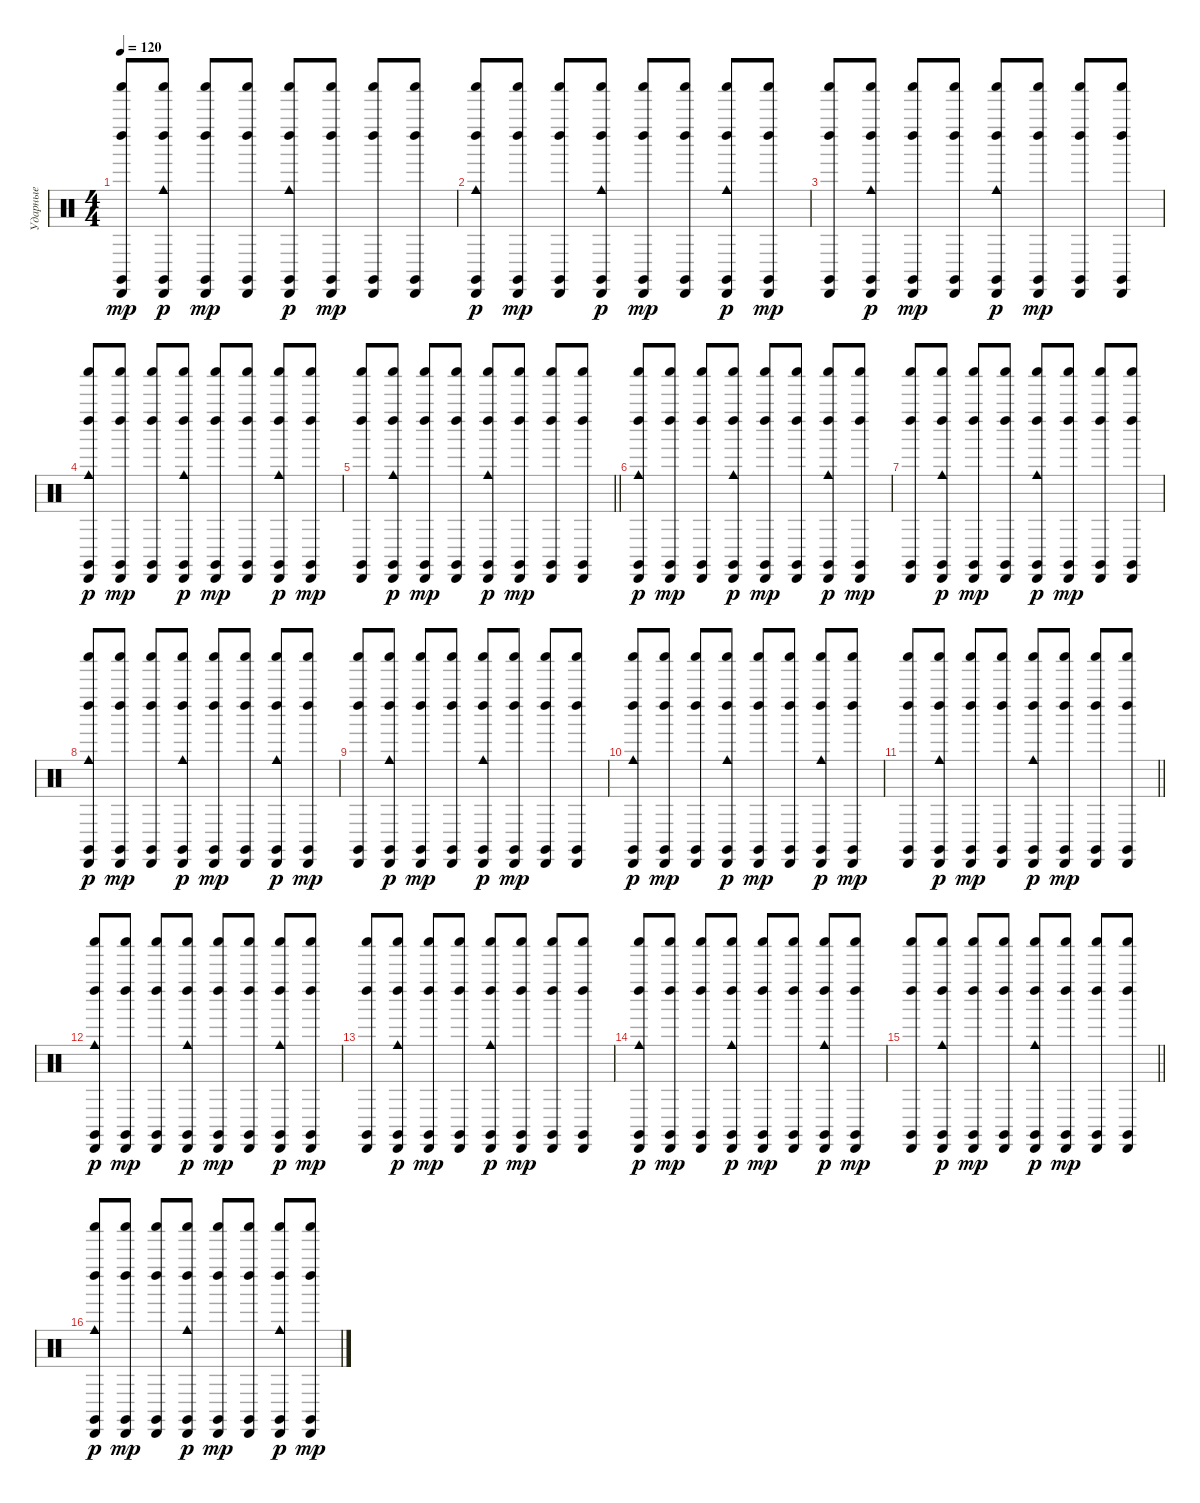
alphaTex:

\track ("Ударные" "Ударные") {instrument percussion}
\staff {score}
\articulation defaults
\ts (4 4)
\tempo 120
\clef neutral
\ks c
("Claves (hit)" "Shaker (hit)" "Cabasa (hit)" "Left Maraca (hit)").8{dy mp} ("Claves (hit)" "Shaker (hit)" "Cabasa (hit)" "Left Maraca (hit)" "Cowbell medium (hit)").8{dy p} ("Claves (hit)" "Shaker (hit)" "Cabasa (hit)" "Left Maraca (hit)").8{dy mp} ("Claves (hit)" "Shaker (hit)" "Cabasa (hit)" "Left Maraca (hit)").8 ("Claves (hit)" "Shaker (hit)" "Cabasa (hit)" "Left Maraca (hit)" "Cowbell medium (hit)").8{dy p} ("Claves (hit)" "Shaker (hit)" "Cabasa (hit)" "Left Maraca (hit)").8{dy mp} ("Claves (hit)" "Shaker (hit)" "Cabasa (hit)" "Left Maraca (hit)").8 ("Claves (hit)" "Shaker (hit)" "Cabasa (hit)" "Left Maraca (hit)").8 |
("Claves (hit)" "Shaker (hit)" "Cabasa (hit)" "Left Maraca (hit)" "Cowbell medium (hit)").8{dy p} ("Claves (hit)" "Shaker (hit)" "Cabasa (hit)" "Left Maraca (hit)").8{dy mp} ("Claves (hit)" "Shaker (hit)" "Cabasa (hit)" "Left Maraca (hit)").8 ("Claves (hit)" "Shaker (hit)" "Cabasa (hit)" "Left Maraca (hit)" "Cowbell medium (hit)").8{dy p} ("Claves (hit)" "Shaker (hit)" "Cabasa (hit)" "Left Maraca (hit)").8{dy mp} ("Claves (hit)" "Shaker (hit)" "Cabasa (hit)" "Left Maraca (hit)").8 ("Claves (hit)" "Shaker (hit)" "Cabasa (hit)" "Left Maraca (hit)" "Cowbell medium (hit)").8{dy p} ("Claves (hit)" "Shaker (hit)" "Cabasa (hit)" "Left Maraca (hit)").8{dy mp} |
("Claves (hit)" "Shaker (hit)" "Cabasa (hit)" "Left Maraca (hit)").8 ("Claves (hit)" "Shaker (hit)" "Cabasa (hit)" "Left Maraca (hit)" "Cowbell medium (hit)").8{dy p} ("Claves (hit)" "Shaker (hit)" "Cabasa (hit)" "Left Maraca (hit)").8{dy mp} ("Claves (hit)" "Shaker (hit)" "Cabasa (hit)" "Left Maraca (hit)").8 ("Claves (hit)" "Shaker (hit)" "Cabasa (hit)" "Left Maraca (hit)" "Cowbell medium (hit)").8{dy p} ("Claves (hit)" "Shaker (hit)" "Cabasa (hit)" "Left Maraca (hit)").8{dy mp} ("Claves (hit)" "Shaker (hit)" "Cabasa (hit)" "Left Maraca (hit)").8 ("Claves (hit)" "Shaker (hit)" "Cabasa (hit)" "Left Maraca (hit)").8 |
("Claves (hit)" "Shaker (hit)" "Cabasa (hit)" "Left Maraca (hit)" "Cowbell medium (hit)").8{dy p} ("Claves (hit)" "Shaker (hit)" "Cabasa (hit)" "Left Maraca (hit)").8{dy mp} ("Claves (hit)" "Shaker (hit)" "Cabasa (hit)" "Left Maraca (hit)").8 ("Claves (hit)" "Shaker (hit)" "Cabasa (hit)" "Left Maraca (hit)" "Cowbell medium (hit)").8{dy p} ("Claves (hit)" "Shaker (hit)" "Cabasa (hit)" "Left Maraca (hit)").8{dy mp} ("Claves (hit)" "Shaker (hit)" "Cabasa (hit)" "Left Maraca (hit)").8 ("Claves (hit)" "Shaker (hit)" "Cabasa (hit)" "Left Maraca (hit)" "Cowbell medium (hit)").8{dy p} ("Claves (hit)" "Shaker (hit)" "Cabasa (hit)" "Left Maraca (hit)").8{dy mp} |
\barLineRight lightlight
("Claves (hit)" "Shaker (hit)" "Cabasa (hit)" "Left Maraca (hit)").8 ("Claves (hit)" "Shaker (hit)" "Cabasa (hit)" "Left Maraca (hit)" "Cowbell medium (hit)").8{dy p} ("Claves (hit)" "Shaker (hit)" "Cabasa (hit)" "Left Maraca (hit)").8{dy mp} ("Claves (hit)" "Shaker (hit)" "Cabasa (hit)" "Left Maraca (hit)").8 ("Claves (hit)" "Shaker (hit)" "Cabasa (hit)" "Left Maraca (hit)" "Cowbell medium (hit)").8{dy p} ("Claves (hit)" "Shaker (hit)" "Cabasa (hit)" "Left Maraca (hit)").8{dy mp} ("Claves (hit)" "Shaker (hit)" "Cabasa (hit)" "Left Maraca (hit)").8 ("Claves (hit)" "Shaker (hit)" "Cabasa (hit)" "Left Maraca (hit)").8 |
("Claves (hit)" "Shaker (hit)" "Cabasa (hit)" "Left Maraca (hit)" "Cowbell medium (hit)").8{dy p} ("Claves (hit)" "Shaker (hit)" "Cabasa (hit)" "Left Maraca (hit)").8{dy mp} ("Claves (hit)" "Shaker (hit)" "Cabasa (hit)" "Left Maraca (hit)").8 ("Claves (hit)" "Shaker (hit)" "Cabasa (hit)" "Left Maraca (hit)" "Cowbell medium (hit)").8{dy p} ("Claves (hit)" "Shaker (hit)" "Cabasa (hit)" "Left Maraca (hit)").8{dy mp} ("Claves (hit)" "Shaker (hit)" "Cabasa (hit)" "Left Maraca (hit)").8 ("Claves (hit)" "Shaker (hit)" "Cabasa (hit)" "Left Maraca (hit)" "Cowbell medium (hit)").8{dy p} ("Claves (hit)" "Shaker (hit)" "Cabasa (hit)" "Left Maraca (hit)").8{dy mp} |
("Claves (hit)" "Shaker (hit)" "Cabasa (hit)" "Left Maraca (hit)").8 ("Claves (hit)" "Shaker (hit)" "Cabasa (hit)" "Left Maraca (hit)" "Cowbell medium (hit)").8{dy p} ("Claves (hit)" "Shaker (hit)" "Cabasa (hit)" "Left Maraca (hit)").8{dy mp} ("Claves (hit)" "Shaker (hit)" "Cabasa (hit)" "Left Maraca (hit)").8 ("Claves (hit)" "Shaker (hit)" "Cabasa (hit)" "Left Maraca (hit)" "Cowbell medium (hit)").8{dy p} ("Claves (hit)" "Shaker (hit)" "Cabasa (hit)" "Left Maraca (hit)").8{dy mp} ("Claves (hit)" "Shaker (hit)" "Cabasa (hit)" "Left Maraca (hit)").8 ("Claves (hit)" "Shaker (hit)" "Cabasa (hit)" "Left Maraca (hit)").8 |
("Claves (hit)" "Shaker (hit)" "Cabasa (hit)" "Left Maraca (hit)" "Cowbell medium (hit)").8{dy p} ("Claves (hit)" "Shaker (hit)" "Cabasa (hit)" "Left Maraca (hit)").8{dy mp} ("Claves (hit)" "Shaker (hit)" "Cabasa (hit)" "Left Maraca (hit)").8 ("Claves (hit)" "Shaker (hit)" "Cabasa (hit)" "Left Maraca (hit)" "Cowbell medium (hit)").8{dy p} ("Claves (hit)" "Shaker (hit)" "Cabasa (hit)" "Left Maraca (hit)").8{dy mp} ("Claves (hit)" "Shaker (hit)" "Cabasa (hit)" "Left Maraca (hit)").8 ("Claves (hit)" "Shaker (hit)" "Cabasa (hit)" "Left Maraca (hit)" "Cowbell medium (hit)").8{dy p} ("Claves (hit)" "Shaker (hit)" "Cabasa (hit)" "Left Maraca (hit)").8{dy mp} |
("Claves (hit)" "Shaker (hit)" "Cabasa (hit)" "Left Maraca (hit)").8 ("Claves (hit)" "Shaker (hit)" "Cabasa (hit)" "Left Maraca (hit)" "Cowbell medium (hit)").8{dy p} ("Claves (hit)" "Shaker (hit)" "Cabasa (hit)" "Left Maraca (hit)").8{dy mp} ("Claves (hit)" "Shaker (hit)" "Cabasa (hit)" "Left Maraca (hit)").8 ("Claves (hit)" "Shaker (hit)" "Cabasa (hit)" "Left Maraca (hit)" "Cowbell medium (hit)").8{dy p} ("Claves (hit)" "Shaker (hit)" "Cabasa (hit)" "Left Maraca (hit)").8{dy mp} ("Claves (hit)" "Shaker (hit)" "Cabasa (hit)" "Left Maraca (hit)").8 ("Claves (hit)" "Shaker (hit)" "Cabasa (hit)" "Left Maraca (hit)").8 |
("Claves (hit)" "Shaker (hit)" "Cabasa (hit)" "Left Maraca (hit)" "Cowbell medium (hit)").8{dy p} ("Claves (hit)" "Shaker (hit)" "Cabasa (hit)" "Left Maraca (hit)").8{dy mp} ("Claves (hit)" "Shaker (hit)" "Cabasa (hit)" "Left Maraca (hit)").8 ("Claves (hit)" "Shaker (hit)" "Cabasa (hit)" "Left Maraca (hit)" "Cowbell medium (hit)").8{dy p} ("Claves (hit)" "Shaker (hit)" "Cabasa (hit)" "Left Maraca (hit)").8{dy mp} ("Claves (hit)" "Shaker (hit)" "Cabasa (hit)" "Left Maraca (hit)").8 ("Claves (hit)" "Shaker (hit)" "Cabasa (hit)" "Left Maraca (hit)" "Cowbell medium (hit)").8{dy p} ("Claves (hit)" "Shaker (hit)" "Cabasa (hit)" "Left Maraca (hit)").8{dy mp} |
\barLineRight lightlight
("Claves (hit)" "Shaker (hit)" "Cabasa (hit)" "Left Maraca (hit)").8 ("Claves (hit)" "Shaker (hit)" "Cabasa (hit)" "Left Maraca (hit)" "Cowbell medium (hit)").8{dy p} ("Claves (hit)" "Shaker (hit)" "Cabasa (hit)" "Left Maraca (hit)").8{dy mp} ("Claves (hit)" "Shaker (hit)" "Cabasa (hit)" "Left Maraca (hit)").8 ("Claves (hit)" "Shaker (hit)" "Cabasa (hit)" "Left Maraca (hit)" "Cowbell medium (hit)").8{dy p} ("Claves (hit)" "Shaker (hit)" "Cabasa (hit)" "Left Maraca (hit)").8{dy mp} ("Claves (hit)" "Shaker (hit)" "Cabasa (hit)" "Left Maraca (hit)").8 ("Claves (hit)" "Shaker (hit)" "Cabasa (hit)" "Left Maraca (hit)").8 |
("Claves (hit)" "Shaker (hit)" "Cabasa (hit)" "Left Maraca (hit)" "Cowbell medium (hit)").8{dy p} ("Claves (hit)" "Shaker (hit)" "Cabasa (hit)" "Left Maraca (hit)").8{dy mp} ("Claves (hit)" "Shaker (hit)" "Cabasa (hit)" "Left Maraca (hit)").8 ("Claves (hit)" "Shaker (hit)" "Cabasa (hit)" "Left Maraca (hit)" "Cowbell medium (hit)").8{dy p} ("Claves (hit)" "Shaker (hit)" "Cabasa (hit)" "Left Maraca (hit)").8{dy mp} ("Claves (hit)" "Shaker (hit)" "Cabasa (hit)" "Left Maraca (hit)").8 ("Claves (hit)" "Shaker (hit)" "Cabasa (hit)" "Left Maraca (hit)" "Cowbell medium (hit)").8{dy p} ("Claves (hit)" "Shaker (hit)" "Cabasa (hit)" "Left Maraca (hit)").8{dy mp} |
("Claves (hit)" "Shaker (hit)" "Cabasa (hit)" "Left Maraca (hit)").8 ("Claves (hit)" "Shaker (hit)" "Cabasa (hit)" "Left Maraca (hit)" "Cowbell medium (hit)").8{dy p} ("Claves (hit)" "Shaker (hit)" "Cabasa (hit)" "Left Maraca (hit)").8{dy mp} ("Claves (hit)" "Shaker (hit)" "Cabasa (hit)" "Left Maraca (hit)").8 ("Claves (hit)" "Shaker (hit)" "Cabasa (hit)" "Left Maraca (hit)" "Cowbell medium (hit)").8{dy p} ("Claves (hit)" "Shaker (hit)" "Cabasa (hit)" "Left Maraca (hit)").8{dy mp} ("Claves (hit)" "Shaker (hit)" "Cabasa (hit)" "Left Maraca (hit)").8 ("Claves (hit)" "Shaker (hit)" "Cabasa (hit)" "Left Maraca (hit)").8 |
("Claves (hit)" "Shaker (hit)" "Cabasa (hit)" "Left Maraca (hit)" "Cowbell medium (hit)").8{dy p} ("Claves (hit)" "Shaker (hit)" "Cabasa (hit)" "Left Maraca (hit)").8{dy mp} ("Claves (hit)" "Shaker (hit)" "Cabasa (hit)" "Left Maraca (hit)").8 ("Claves (hit)" "Shaker (hit)" "Cabasa (hit)" "Left Maraca (hit)" "Cowbell medium (hit)").8{dy p} ("Claves (hit)" "Shaker (hit)" "Cabasa (hit)" "Left Maraca (hit)").8{dy mp} ("Claves (hit)" "Shaker (hit)" "Cabasa (hit)" "Left Maraca (hit)").8 ("Claves (hit)" "Shaker (hit)" "Cabasa (hit)" "Left Maraca (hit)" "Cowbell medium (hit)").8{dy p} ("Claves (hit)" "Shaker (hit)" "Cabasa (hit)" "Left Maraca (hit)").8{dy mp} |
\barLineRight lightlight
("Claves (hit)" "Shaker (hit)" "Cabasa (hit)" "Left Maraca (hit)").8 ("Claves (hit)" "Shaker (hit)" "Cabasa (hit)" "Left Maraca (hit)" "Cowbell medium (hit)").8{dy p} ("Claves (hit)" "Shaker (hit)" "Cabasa (hit)" "Left Maraca (hit)").8{dy mp} ("Claves (hit)" "Shaker (hit)" "Cabasa (hit)" "Left Maraca (hit)").8 ("Claves (hit)" "Shaker (hit)" "Cabasa (hit)" "Left Maraca (hit)" "Cowbell medium (hit)").8{dy p} ("Claves (hit)" "Shaker (hit)" "Cabasa (hit)" "Left Maraca (hit)").8{dy mp} ("Claves (hit)" "Shaker (hit)" "Cabasa (hit)" "Left Maraca (hit)").8 ("Claves (hit)" "Shaker (hit)" "Cabasa (hit)" "Left Maraca (hit)").8 |
("Claves (hit)" "Shaker (hit)" "Cabasa (hit)" "Left Maraca (hit)" "Cowbell medium (hit)").8{dy p} ("Claves (hit)" "Shaker (hit)" "Cabasa (hit)" "Left Maraca (hit)").8{dy mp} ("Claves (hit)" "Shaker (hit)" "Cabasa (hit)" "Left Maraca (hit)").8 ("Claves (hit)" "Shaker (hit)" "Cabasa (hit)" "Left Maraca (hit)" "Cowbell medium (hit)").8{dy p} ("Claves (hit)" "Shaker (hit)" "Cabasa (hit)" "Left Maraca (hit)").8{dy mp} ("Claves (hit)" "Shaker (hit)" "Cabasa (hit)" "Left Maraca (hit)").8 ("Claves (hit)" "Shaker (hit)" "Cabasa (hit)" "Left Maraca (hit)" "Cowbell medium (hit)").8{dy p} ("Claves (hit)" "Shaker (hit)" "Cabasa (hit)" "Left Maraca (hit)").8{dy mp}
